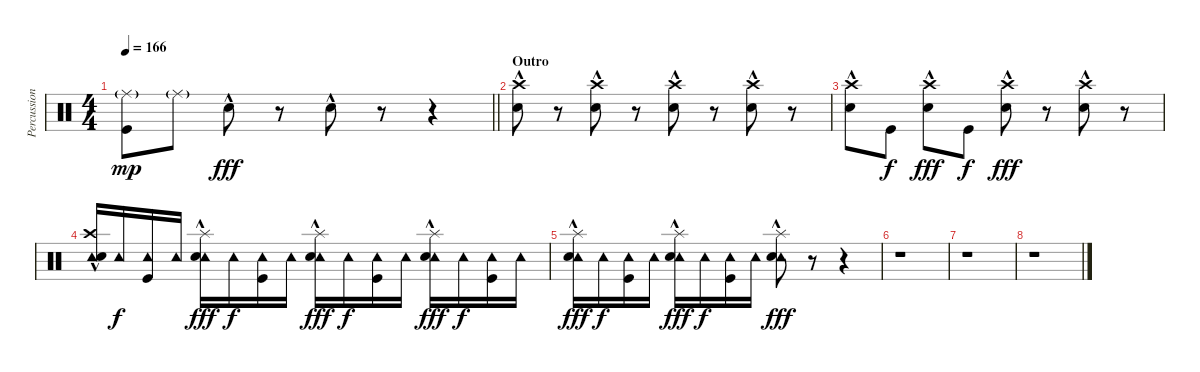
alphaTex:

\track ("Percussion" "Percussion") {instrument percussion}
\staff {score}
\articulation defaults
\ts (4 4)
\tempo 166
\clef neutral
\barLineRight lightlight
\ks c
("Ride (middle)"{g} "Kick (hit)").8{dy mp} "Ride (middle)"{g}.8 "Snare (hit) 2"{hac}.8{dy fff} r.8 "Snare (hit) 2"{hac}.8 r.8 r.4 |
\section ("" "Outro")
("Crash high (hit)" "Snare (hit) 2"{hac}).8 r.8 ("Crash high (hit)" "Snare (hit) 2"{hac}).8 r.8 ("Crash high (hit)" "Snare (hit) 2"{hac}).8 r.8 ("Crash high (hit)" "Snare (hit) 2"{hac}).8 r.8 |
("Crash high (hit)" "Snare (hit) 2"{hac}).8 "Kick (hit)".8{dy f} ("Crash high (hit)" "Snare (hit) 2"{hac}).8{dy fff} "Kick (hit)".8{dy f} ("Crash high (hit)" "Snare (hit) 2"{hac}).8{dy fff} r.8 ("Crash high (hit)" "Snare (hit) 2"{hac}).8 r.8 |
("Crash high (hit)" "Tambourine (hit)" "Snare (hit) 2"{hac}).16 "Tambourine (hit)".16{dy f} ("Tambourine (hit)" "Kick (hit)").16 "Tambourine (hit)".16 ("Splash (hit)" "Tambourine (hit)" "Snare (hit) 2"{hac}).16{dy fff} "Tambourine (hit)".16{dy f} ("Tambourine (hit)" "Kick (hit)").16 "Tambourine (hit)".16 ("Splash (hit)" "Tambourine (hit)" "Snare (hit) 2"{hac}).16{dy fff} "Tambourine (hit)".16{dy f} ("Tambourine (hit)" "Kick (hit)").16 "Tambourine (hit)".16 ("Splash (hit)" "Tambourine (hit)" "Snare (hit) 2"{hac}).16{dy fff} "Tambourine (hit)".16{dy f} ("Tambourine (hit)" "Kick (hit)").16 "Tambourine (hit)".16 |
("Splash (hit)" "Tambourine (hit)" "Snare (hit) 2"{hac}).16{dy fff} "Tambourine (hit)".16{dy f} ("Tambourine (hit)" "Kick (hit)").16 "Tambourine (hit)".16 ("Splash (hit)" "Tambourine (hit)" "Snare (hit) 2"{hac}).16{dy fff} "Tambourine (hit)".16{dy f} ("Tambourine (hit)" "Kick (hit)").16 "Tambourine (hit)".16 ("Splash (hit)" "Tambourine (hit)" "Snare (hit) 2"{hac}).8{dy fff} r.8 r.4 |
r.1 |
r.1 |
r.1
